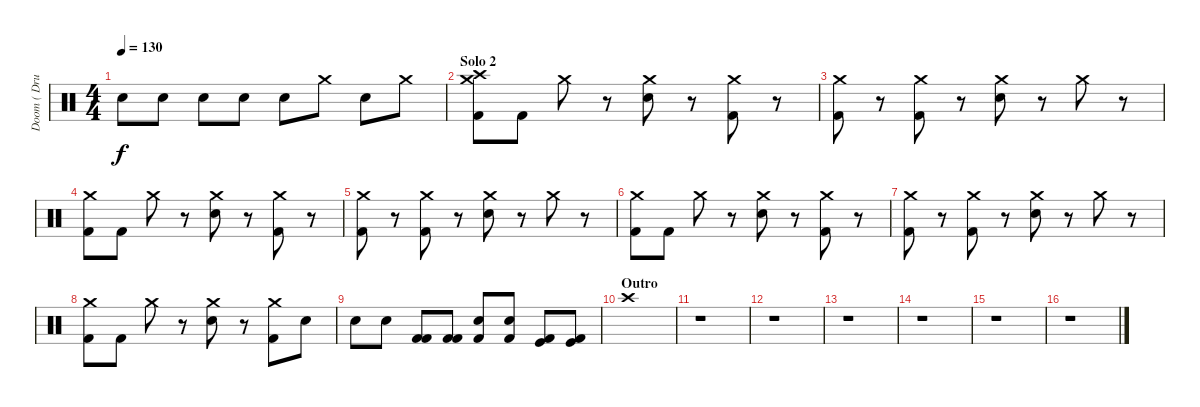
\track ("Doom ( Drums )" "Doom ( Dru") {instrument percussion}
\staff {score}
\articulation defaults
\ts (4 4)
\tempo 130
\clef neutral
\ks c "Electric Snare (hit)".8{dy f} "Electric Snare (hit)".8 "Electric Snare (hit)".8 "Electric Snare (hit)".8 "Electric Snare (hit)".8 "Crash medium (hit)".8 "Electric Snare (hit)".8 "Crash medium (hit)".8
|
\section ("" "Solo 2")
("Crash high (hit)" "Kick (hit) 2" "Crash medium (hit)").8 "Kick (hit) 2".8 "Crash medium (hit)".8 r.8 ("Electric Snare (hit)" "Crash medium (hit)").8 r.8 ("Kick (hit) 2" "Crash medium (hit)").8 r.8 |
("Kick (hit) 2" "Crash medium (hit)").8 r.8 ("Kick (hit) 2" "Crash medium (hit)").8 r.8 ("Electric Snare (hit)" "Crash medium (hit)").8 r.8 "Crash medium (hit)".8 r.8 |
("Kick (hit) 2" "Crash medium (hit)").8 "Kick (hit) 2".8 "Crash medium (hit)".8 r.8 ("Electric Snare (hit)" "Crash medium (hit)").8 r.8 ("Kick (hit) 2" "Crash medium (hit)").8 r.8 |
("Kick (hit) 2" "Crash medium (hit)").8 r.8 ("Kick (hit) 2" "Crash medium (hit)").8 r.8 ("Electric Snare (hit)" "Crash medium (hit)").8 r.8 "Crash medium (hit)".8 r.8 |
("Kick (hit) 2" "Crash medium (hit)").8 "Kick (hit) 2".8 "Crash medium (hit)".8 r.8 ("Electric Snare (hit)" "Crash medium (hit)").8 r.8 ("Kick (hit) 2" "Crash medium (hit)").8 r.8 |
("Kick (hit) 2" "Crash medium (hit)").8 r.8 ("Kick (hit) 2" "Crash medium (hit)").8 r.8 ("Electric Snare (hit)" "Crash medium (hit)").8 r.8 "Crash medium (hit)".8 r.8 |
("Kick (hit) 2" "Crash medium (hit)").8 "Kick (hit) 2".8 "Crash medium (hit)".8 r.8 ("Electric Snare (hit)" "Crash medium (hit)").8 r.8 ("Kick (hit) 2" "Crash medium (hit)").8 "Electric Snare (hit)".8 |
"Electric Snare (hit)".8 "Electric Snare (hit)".8 ("Kick (hit) 2" "Kick (hit) 2").8 ("Kick (hit) 2" "Kick (hit) 2").8 ("Kick (hit) 2" "Snare (hit) 2").8 ("Kick (hit) 2" "Snare (hit) 2").8 ("Kick (hit) 2" "Kick (hit)").8 ("Kick (hit) 2" "Kick (hit)").8 |
\section ("" "Outro")
"Crash high (hit)".1 |
r.1 |
r.1 |
r.1 |
r.1 |
r.1 |
r.1
